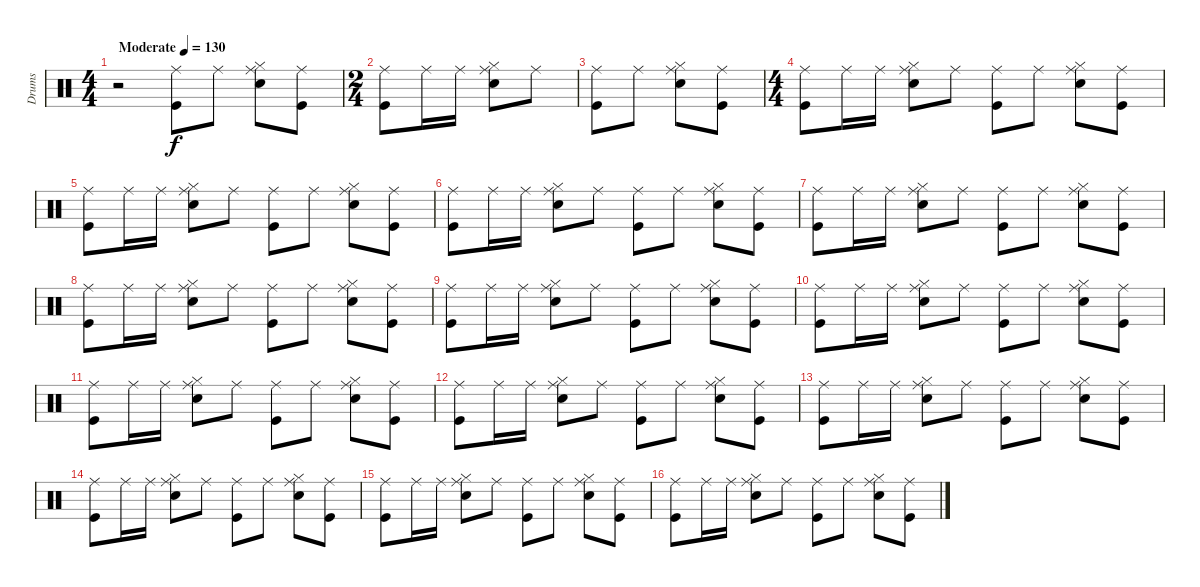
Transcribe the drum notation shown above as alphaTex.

\track ("Drums" "Drums") {instrument percussion}
\staff {score}
\articulation defaults
\ts (4 4)
\tempo (130 "Moderate")
\clef neutral
\ks c
r.2{dy f} ("Kick (hit)" "Ride (middle)").8 "Ride (middle)".8 ("Snare (hit) 2" "Hi-Hat (closed)" "Ride (middle)").8 ("Kick (hit)" "Ride (middle)").8 |
\ts (2 4)
("Kick (hit)" "Ride (middle)").8 "Ride (middle)".16 "Ride (middle)".16 ("Snare (hit) 2" "Hi-Hat (closed)" "Ride (middle)").8 "Ride (middle)".8 |
("Kick (hit)" "Ride (middle)").8 "Ride (middle)".8 ("Snare (hit) 2" "Hi-Hat (closed)" "Ride (middle)").8 ("Kick (hit)" "Ride (middle)").8 |
\ts (4 4)
("Kick (hit)" "Ride (middle)").8 "Ride (middle)".16 "Ride (middle)".16 ("Snare (hit) 2" "Hi-Hat (closed)" "Ride (middle)").8 "Ride (middle)".8 ("Kick (hit)" "Ride (middle)").8 "Ride (middle)".8 ("Snare (hit) 2" "Hi-Hat (closed)" "Ride (middle)").8 ("Kick (hit)" "Ride (middle)").8 |
("Kick (hit)" "Ride (middle)").8 "Ride (middle)".16 "Ride (middle)".16 ("Snare (hit) 2" "Hi-Hat (closed)" "Ride (middle)").8 "Ride (middle)".8 ("Kick (hit)" "Ride (middle)").8 "Ride (middle)".8 ("Snare (hit) 2" "Hi-Hat (closed)" "Ride (middle)").8 ("Kick (hit)" "Ride (middle)").8 |
("Kick (hit)" "Ride (middle)").8 "Ride (middle)".16 "Ride (middle)".16 ("Snare (hit) 2" "Hi-Hat (closed)" "Ride (middle)").8 "Ride (middle)".8 ("Kick (hit)" "Ride (middle)").8 "Ride (middle)".8 ("Snare (hit) 2" "Hi-Hat (closed)" "Ride (middle)").8 ("Kick (hit)" "Ride (middle)").8 |
("Kick (hit)" "Ride (middle)").8 "Ride (middle)".16 "Ride (middle)".16 ("Snare (hit) 2" "Hi-Hat (closed)" "Ride (middle)").8 "Ride (middle)".8 ("Kick (hit)" "Ride (middle)").8 "Ride (middle)".8 ("Snare (hit) 2" "Hi-Hat (closed)" "Ride (middle)").8 ("Kick (hit)" "Ride (middle)").8 |
("Kick (hit)" "Ride (middle)").8 "Ride (middle)".16 "Ride (middle)".16 ("Snare (hit) 2" "Hi-Hat (closed)" "Ride (middle)").8 "Ride (middle)".8 ("Kick (hit)" "Ride (middle)").8 "Ride (middle)".8 ("Snare (hit) 2" "Hi-Hat (closed)" "Ride (middle)").8 ("Kick (hit)" "Ride (middle)").8 |
("Kick (hit)" "Ride (middle)").8 "Ride (middle)".16 "Ride (middle)".16 ("Snare (hit) 2" "Hi-Hat (closed)" "Ride (middle)").8 "Ride (middle)".8 ("Kick (hit)" "Ride (middle)").8 "Ride (middle)".8 ("Snare (hit) 2" "Hi-Hat (closed)" "Ride (middle)").8 ("Kick (hit)" "Ride (middle)").8 |
("Kick (hit)" "Ride (middle)").8 "Ride (middle)".16 "Ride (middle)".16 ("Snare (hit) 2" "Hi-Hat (closed)" "Ride (middle)").8 "Ride (middle)".8 ("Kick (hit)" "Ride (middle)").8 "Ride (middle)".8 ("Snare (hit) 2" "Hi-Hat (closed)" "Ride (middle)").8 ("Kick (hit)" "Ride (middle)").8 |
("Kick (hit)" "Ride (middle)").8 "Ride (middle)".16 "Ride (middle)".16 ("Snare (hit) 2" "Hi-Hat (closed)" "Ride (middle)").8 "Ride (middle)".8 ("Kick (hit)" "Ride (middle)").8 "Ride (middle)".8 ("Snare (hit) 2" "Hi-Hat (closed)" "Ride (middle)").8 ("Kick (hit)" "Ride (middle)").8 |
("Kick (hit)" "Ride (middle)").8 "Ride (middle)".16 "Ride (middle)".16 ("Snare (hit) 2" "Hi-Hat (closed)" "Ride (middle)").8 "Ride (middle)".8 ("Kick (hit)" "Ride (middle)").8 "Ride (middle)".8 ("Snare (hit) 2" "Hi-Hat (closed)" "Ride (middle)").8 ("Kick (hit)" "Ride (middle)").8 |
("Kick (hit)" "Ride (middle)").8 "Ride (middle)".16 "Ride (middle)".16 ("Snare (hit) 2" "Hi-Hat (closed)" "Ride (middle)").8 "Ride (middle)".8 ("Kick (hit)" "Ride (middle)").8 "Ride (middle)".8 ("Snare (hit) 2" "Hi-Hat (closed)" "Ride (middle)").8 ("Kick (hit)" "Ride (middle)").8 |
("Kick (hit)" "Ride (middle)").8 "Ride (middle)".16 "Ride (middle)".16 ("Snare (hit) 2" "Hi-Hat (closed)" "Ride (middle)").8 "Ride (middle)".8 ("Kick (hit)" "Ride (middle)").8 "Ride (middle)".8 ("Snare (hit) 2" "Hi-Hat (closed)" "Ride (middle)").8 ("Kick (hit)" "Ride (middle)").8 |
("Kick (hit)" "Ride (middle)").8 "Ride (middle)".16 "Ride (middle)".16 ("Snare (hit) 2" "Hi-Hat (closed)" "Ride (middle)").8 "Ride (middle)".8 ("Kick (hit)" "Ride (middle)").8 "Ride (middle)".8 ("Snare (hit) 2" "Hi-Hat (closed)" "Ride (middle)").8 ("Kick (hit)" "Ride (middle)").8 |
("Kick (hit)" "Ride (middle)").8 "Ride (middle)".16 "Ride (middle)".16 ("Snare (hit) 2" "Hi-Hat (closed)" "Ride (middle)").8 "Ride (middle)".8 ("Kick (hit)" "Ride (middle)").8 "Ride (middle)".8 ("Snare (hit) 2" "Hi-Hat (closed)" "Ride (middle)").8 ("Kick (hit)" "Ride (middle)").8
